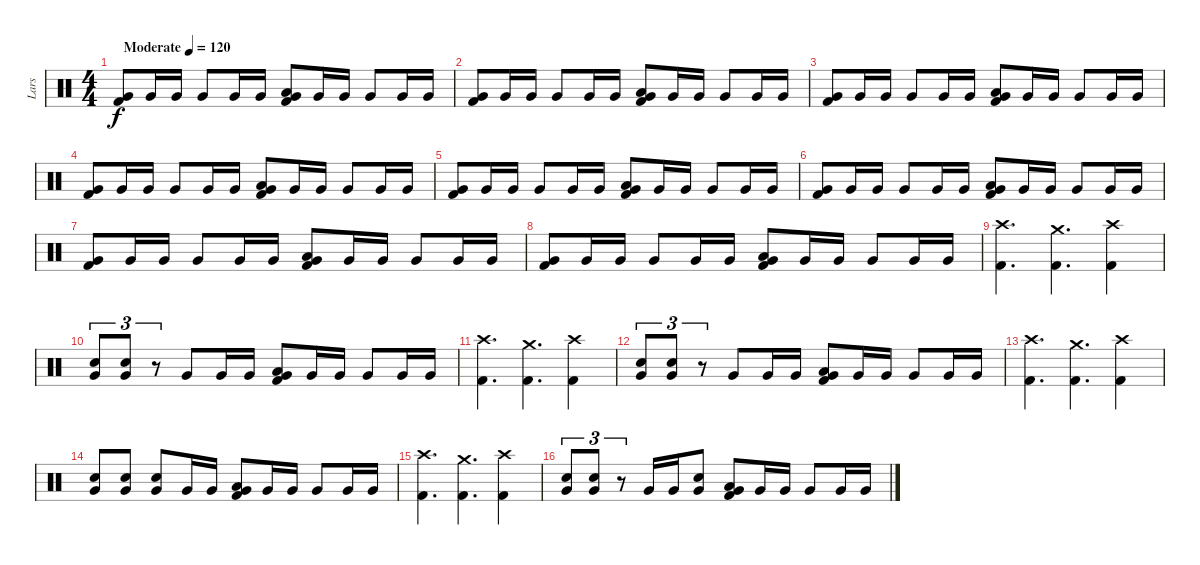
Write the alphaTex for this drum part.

\track ("Lars" "Lars") {instrument percussion}
\staff {score}
\articulation defaults
\ts (4 4)
\tempo (120 "Moderate")
\clef neutral
\ks c
("Very Low Tom (hit)" "Kick (hit) 2").8{dy f} "Very Low Tom (hit)".16 "Very Low Tom (hit)".16 "Very Low Tom (hit)".8 "Very Low Tom (hit)".16 "Very Low Tom (hit)".16 ("Low Tom (hit)" "Very Low Tom (hit)" "Kick (hit) 2").8 "Very Low Tom (hit)".16 "Very Low Tom (hit)".16 "Very Low Tom (hit)".8 "Very Low Tom (hit)".16 "Very Low Tom (hit)".16 |
("Very Low Tom (hit)" "Kick (hit) 2").8 "Very Low Tom (hit)".16 "Very Low Tom (hit)".16 "Very Low Tom (hit)".8 "Very Low Tom (hit)".16 "Very Low Tom (hit)".16 ("Low Tom (hit)" "Very Low Tom (hit)" "Kick (hit) 2").8 "Very Low Tom (hit)".16 "Very Low Tom (hit)".16 "Very Low Tom (hit)".8 "Very Low Tom (hit)".16 "Very Low Tom (hit)".16 |
("Very Low Tom (hit)" "Kick (hit) 2").8 "Very Low Tom (hit)".16 "Very Low Tom (hit)".16 "Very Low Tom (hit)".8 "Very Low Tom (hit)".16 "Very Low Tom (hit)".16 ("Low Tom (hit)" "Very Low Tom (hit)" "Kick (hit) 2").8 "Very Low Tom (hit)".16 "Very Low Tom (hit)".16 "Very Low Tom (hit)".8 "Very Low Tom (hit)".16 "Very Low Tom (hit)".16 |
("Very Low Tom (hit)" "Kick (hit) 2").8 "Very Low Tom (hit)".16 "Very Low Tom (hit)".16 "Very Low Tom (hit)".8 "Very Low Tom (hit)".16 "Very Low Tom (hit)".16 ("Low Tom (hit)" "Very Low Tom (hit)" "Kick (hit) 2").8 "Very Low Tom (hit)".16 "Very Low Tom (hit)".16 "Very Low Tom (hit)".8 "Very Low Tom (hit)".16 "Very Low Tom (hit)".16 |
("Very Low Tom (hit)" "Kick (hit) 2").8 "Very Low Tom (hit)".16 "Very Low Tom (hit)".16 "Very Low Tom (hit)".8 "Very Low Tom (hit)".16 "Very Low Tom (hit)".16 ("Low Tom (hit)" "Very Low Tom (hit)" "Kick (hit) 2").8 "Very Low Tom (hit)".16 "Very Low Tom (hit)".16 "Very Low Tom (hit)".8 "Very Low Tom (hit)".16 "Very Low Tom (hit)".16 |
("Very Low Tom (hit)" "Kick (hit) 2").8 "Very Low Tom (hit)".16 "Very Low Tom (hit)".16 "Very Low Tom (hit)".8 "Very Low Tom (hit)".16 "Very Low Tom (hit)".16 ("Low Tom (hit)" "Very Low Tom (hit)" "Kick (hit) 2").8 "Very Low Tom (hit)".16 "Very Low Tom (hit)".16 "Very Low Tom (hit)".8 "Very Low Tom (hit)".16 "Very Low Tom (hit)".16 |
("Very Low Tom (hit)" "Kick (hit) 2").8 "Very Low Tom (hit)".16 "Very Low Tom (hit)".16 "Very Low Tom (hit)".8 "Very Low Tom (hit)".16 "Very Low Tom (hit)".16 ("Low Tom (hit)" "Very Low Tom (hit)" "Kick (hit) 2").8 "Very Low Tom (hit)".16 "Very Low Tom (hit)".16 "Very Low Tom (hit)".8 "Very Low Tom (hit)".16 "Very Low Tom (hit)".16 |
("Very Low Tom (hit)" "Kick (hit) 2").8 "Very Low Tom (hit)".16 "Very Low Tom (hit)".16 "Very Low Tom (hit)".8 "Very Low Tom (hit)".16 "Very Low Tom (hit)".16 ("Low Tom (hit)" "Very Low Tom (hit)" "Kick (hit) 2").8 "Very Low Tom (hit)".16 "Very Low Tom (hit)".16 "Very Low Tom (hit)".8 "Very Low Tom (hit)".16 "Very Low Tom (hit)".16 |
("Crash high (hit)" "Kick (hit) 2").4{d} ("Crash medium (hit)" "Kick (hit) 2").4{d} ("Crash high (hit)" "Kick (hit) 2").4 |
("Very Low Tom (hit)" "Electric Snare (hit)").8{tu (3 2)} ("Very Low Tom (hit)" "Electric Snare (hit)").8{tu (3 2)} r.8{tu (3 2)} "Very Low Tom (hit)".8 "Very Low Tom (hit)".16 "Very Low Tom (hit)".16 ("Low Tom (hit)" "Very Low Tom (hit)" "Kick (hit) 2").8 "Very Low Tom (hit)".16 "Very Low Tom (hit)".16 "Very Low Tom (hit)".8 "Very Low Tom (hit)".16 "Very Low Tom (hit)".16 |
("Crash high (hit)" "Kick (hit) 2").4{d} ("Crash medium (hit)" "Kick (hit) 2").4{d} ("Crash high (hit)" "Kick (hit) 2").4 |
("Very Low Tom (hit)" "Electric Snare (hit)").8{tu (3 2)} ("Very Low Tom (hit)" "Electric Snare (hit)").8{tu (3 2)} r.8{tu (3 2)} "Very Low Tom (hit)".8 "Very Low Tom (hit)".16 "Very Low Tom (hit)".16 ("Low Tom (hit)" "Very Low Tom (hit)" "Kick (hit) 2").8 "Very Low Tom (hit)".16 "Very Low Tom (hit)".16 "Very Low Tom (hit)".8 "Very Low Tom (hit)".16 "Very Low Tom (hit)".16 |
("Crash high (hit)" "Kick (hit) 2").4{d} ("Crash medium (hit)" "Kick (hit) 2").4{d} ("Crash high (hit)" "Kick (hit) 2").4 |
("Very Low Tom (hit)" "Electric Snare (hit)").8 ("Very Low Tom (hit)" "Electric Snare (hit)").8 ("Very Low Tom (hit)" "Electric Snare (hit)").8 "Very Low Tom (hit)".16 "Very Low Tom (hit)".16 ("Low Tom (hit)" "Very Low Tom (hit)" "Kick (hit) 2").8 "Very Low Tom (hit)".16 "Very Low Tom (hit)".16 "Very Low Tom (hit)".8 "Very Low Tom (hit)".16 "Very Low Tom (hit)".16 |
("Crash high (hit)" "Kick (hit) 2").4{d} ("Crash medium (hit)" "Kick (hit) 2").4{d} ("Crash high (hit)" "Kick (hit) 2").4 |
("Very Low Tom (hit)" "Electric Snare (hit)").8{tu (3 2)} ("Very Low Tom (hit)" "Electric Snare (hit)").8{tu (3 2)} r.8{tu (3 2)} "Very Low Tom (hit)".16 "Very Low Tom (hit)".16 ("Very Low Tom (hit)" "Electric Snare (hit)").8 ("Low Tom (hit)" "Very Low Tom (hit)" "Kick (hit) 2").8 "Very Low Tom (hit)".16 "Very Low Tom (hit)".16 "Very Low Tom (hit)".8 "Very Low Tom (hit)".16 "Very Low Tom (hit)".16
